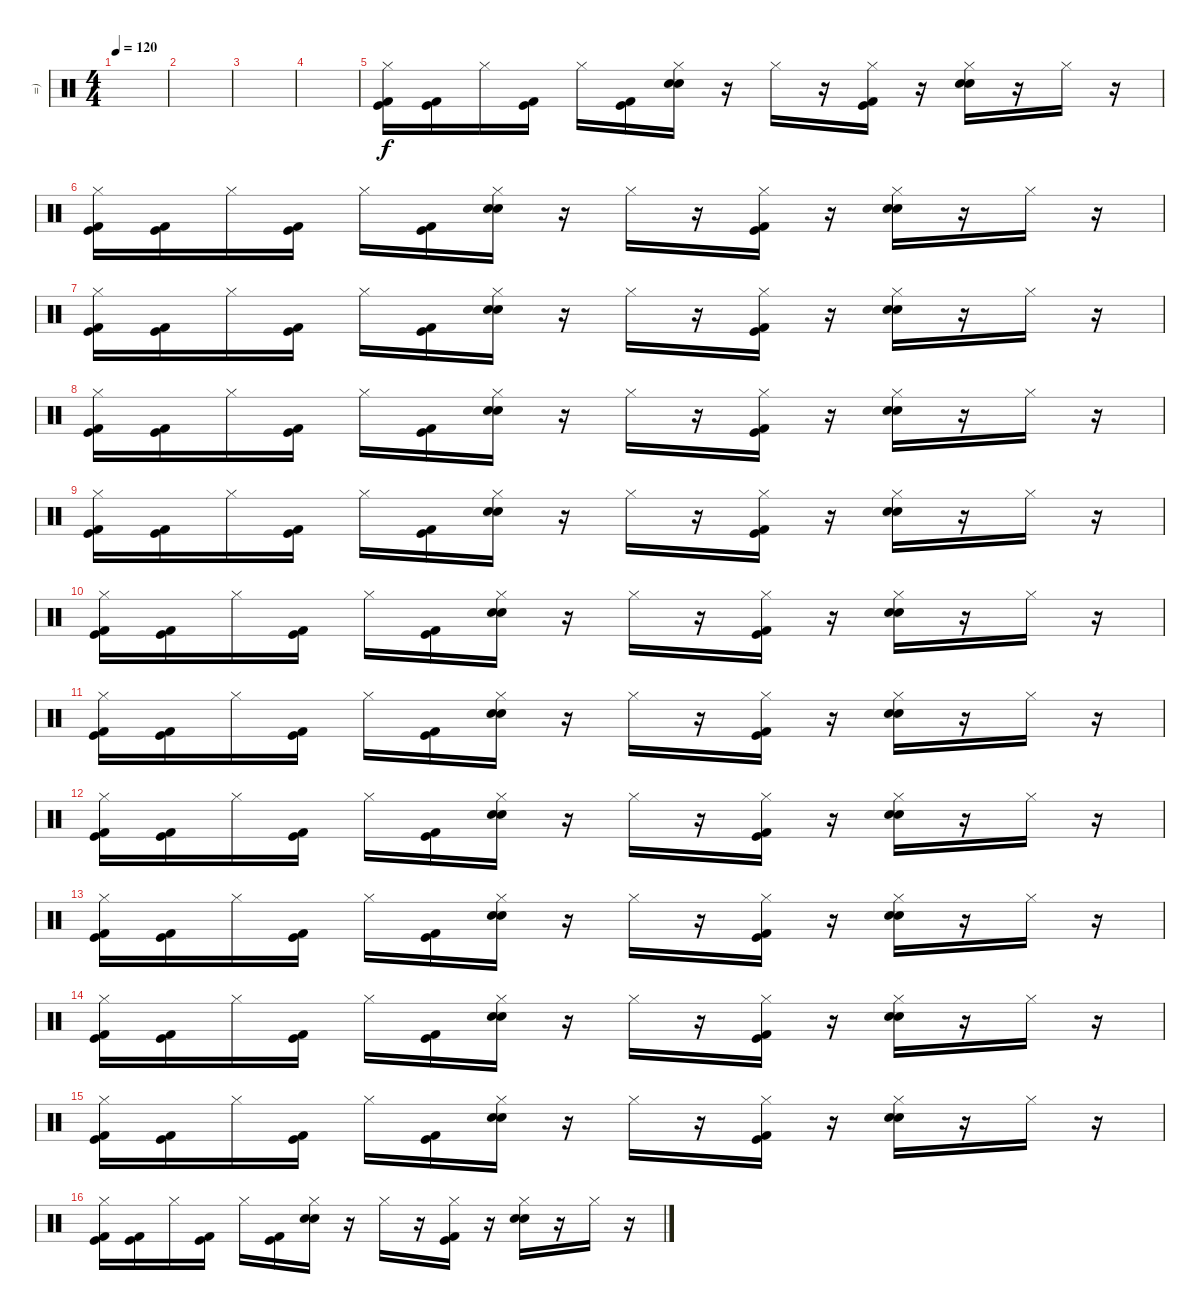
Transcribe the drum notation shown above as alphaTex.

\track ("=)" "=)") {instrument percussion}
\staff {score}
\articulation defaults
\ts (4 4)
\tempo 120
\clef neutral
\ks c
|
|
|
|
("Hi-Hat (closed)" "Kick (hit)" "Kick (hit) 2").16 ("Kick (hit)" "Kick (hit) 2").16 "Hi-Hat (closed)".16 ("Kick (hit)" "Kick (hit) 2").16 "Hi-Hat (closed)".16 ("Kick (hit)" "Kick (hit) 2").16 ("Hi-Hat (closed)" "Snare (hit) 2" "Electric Snare (hit)").16 r.16 "Hi-Hat (closed)".16 r.16 ("Hi-Hat (closed)" "Kick (hit)" "Kick (hit) 2").16 r.16 ("Hi-Hat (closed)" "Snare (hit) 2" "Electric Snare (hit)").16 r.16 "Hi-Hat (closed)".16 r.16 |
("Hi-Hat (closed)" "Kick (hit)" "Kick (hit) 2").16 ("Kick (hit)" "Kick (hit) 2").16 "Hi-Hat (closed)".16 ("Kick (hit)" "Kick (hit) 2").16 "Hi-Hat (closed)".16 ("Kick (hit)" "Kick (hit) 2").16 ("Hi-Hat (closed)" "Snare (hit) 2" "Electric Snare (hit)").16 r.16 "Hi-Hat (closed)".16 r.16 ("Hi-Hat (closed)" "Kick (hit)" "Kick (hit) 2").16 r.16 ("Hi-Hat (closed)" "Snare (hit) 2" "Electric Snare (hit)").16 r.16 "Hi-Hat (closed)".16 r.16 |
("Hi-Hat (closed)" "Kick (hit)" "Kick (hit) 2").16 ("Kick (hit)" "Kick (hit) 2").16 "Hi-Hat (closed)".16 ("Kick (hit)" "Kick (hit) 2").16 "Hi-Hat (closed)".16 ("Kick (hit)" "Kick (hit) 2").16 ("Hi-Hat (closed)" "Snare (hit) 2" "Electric Snare (hit)").16 r.16 "Hi-Hat (closed)".16 r.16 ("Hi-Hat (closed)" "Kick (hit)" "Kick (hit) 2").16 r.16 ("Hi-Hat (closed)" "Snare (hit) 2" "Electric Snare (hit)").16 r.16 "Hi-Hat (closed)".16 r.16 |
("Hi-Hat (closed)" "Kick (hit)" "Kick (hit) 2").16 ("Kick (hit)" "Kick (hit) 2").16 "Hi-Hat (closed)".16 ("Kick (hit)" "Kick (hit) 2").16 "Hi-Hat (closed)".16 ("Kick (hit)" "Kick (hit) 2").16 ("Hi-Hat (closed)" "Snare (hit) 2" "Electric Snare (hit)").16 r.16 "Hi-Hat (closed)".16 r.16 ("Hi-Hat (closed)" "Kick (hit)" "Kick (hit) 2").16 r.16 ("Hi-Hat (closed)" "Snare (hit) 2" "Electric Snare (hit)").16 r.16 "Hi-Hat (closed)".16 r.16 |
("Hi-Hat (closed)" "Kick (hit)" "Kick (hit) 2").16 ("Kick (hit)" "Kick (hit) 2").16 "Hi-Hat (closed)".16 ("Kick (hit)" "Kick (hit) 2").16 "Hi-Hat (closed)".16 ("Kick (hit)" "Kick (hit) 2").16 ("Hi-Hat (closed)" "Snare (hit) 2" "Electric Snare (hit)").16 r.16 "Hi-Hat (closed)".16 r.16 ("Hi-Hat (closed)" "Kick (hit)" "Kick (hit) 2").16 r.16 ("Hi-Hat (closed)" "Snare (hit) 2" "Electric Snare (hit)").16 r.16 "Hi-Hat (closed)".16 r.16 |
("Hi-Hat (closed)" "Kick (hit)" "Kick (hit) 2").16 ("Kick (hit)" "Kick (hit) 2").16 "Hi-Hat (closed)".16 ("Kick (hit)" "Kick (hit) 2").16 "Hi-Hat (closed)".16 ("Kick (hit)" "Kick (hit) 2").16 ("Hi-Hat (closed)" "Snare (hit) 2" "Electric Snare (hit)").16 r.16 "Hi-Hat (closed)".16 r.16 ("Hi-Hat (closed)" "Kick (hit)" "Kick (hit) 2").16 r.16 ("Hi-Hat (closed)" "Snare (hit) 2" "Electric Snare (hit)").16 r.16 "Hi-Hat (closed)".16 r.16 |
("Hi-Hat (closed)" "Kick (hit)" "Kick (hit) 2").16 ("Kick (hit)" "Kick (hit) 2").16 "Hi-Hat (closed)".16 ("Kick (hit)" "Kick (hit) 2").16 "Hi-Hat (closed)".16 ("Kick (hit)" "Kick (hit) 2").16 ("Hi-Hat (closed)" "Snare (hit) 2" "Electric Snare (hit)").16 r.16 "Hi-Hat (closed)".16 r.16 ("Hi-Hat (closed)" "Kick (hit)" "Kick (hit) 2").16 r.16 ("Hi-Hat (closed)" "Snare (hit) 2" "Electric Snare (hit)").16 r.16 "Hi-Hat (closed)".16 r.16 |
("Hi-Hat (closed)" "Kick (hit)" "Kick (hit) 2").16 ("Kick (hit)" "Kick (hit) 2").16 "Hi-Hat (closed)".16 ("Kick (hit)" "Kick (hit) 2").16 "Hi-Hat (closed)".16 ("Kick (hit)" "Kick (hit) 2").16 ("Hi-Hat (closed)" "Snare (hit) 2" "Electric Snare (hit)").16 r.16 "Hi-Hat (closed)".16 r.16 ("Hi-Hat (closed)" "Kick (hit)" "Kick (hit) 2").16 r.16 ("Hi-Hat (closed)" "Snare (hit) 2" "Electric Snare (hit)").16 r.16 "Hi-Hat (closed)".16 r.16 |
("Hi-Hat (closed)" "Kick (hit)" "Kick (hit) 2").16 ("Kick (hit)" "Kick (hit) 2").16 "Hi-Hat (closed)".16 ("Kick (hit)" "Kick (hit) 2").16 "Hi-Hat (closed)".16 ("Kick (hit)" "Kick (hit) 2").16 ("Hi-Hat (closed)" "Snare (hit) 2" "Electric Snare (hit)").16 r.16 "Hi-Hat (closed)".16 r.16 ("Hi-Hat (closed)" "Kick (hit)" "Kick (hit) 2").16 r.16 ("Hi-Hat (closed)" "Snare (hit) 2" "Electric Snare (hit)").16 r.16 "Hi-Hat (closed)".16 r.16 |
("Hi-Hat (closed)" "Kick (hit)" "Kick (hit) 2").16 ("Kick (hit)" "Kick (hit) 2").16 "Hi-Hat (closed)".16 ("Kick (hit)" "Kick (hit) 2").16 "Hi-Hat (closed)".16 ("Kick (hit)" "Kick (hit) 2").16 ("Hi-Hat (closed)" "Snare (hit) 2" "Electric Snare (hit)").16 r.16 "Hi-Hat (closed)".16 r.16 ("Hi-Hat (closed)" "Kick (hit)" "Kick (hit) 2").16 r.16 ("Hi-Hat (closed)" "Snare (hit) 2" "Electric Snare (hit)").16 r.16 "Hi-Hat (closed)".16 r.16 |
("Hi-Hat (closed)" "Kick (hit)" "Kick (hit) 2").16 ("Kick (hit)" "Kick (hit) 2").16 "Hi-Hat (closed)".16 ("Kick (hit)" "Kick (hit) 2").16 "Hi-Hat (closed)".16 ("Kick (hit)" "Kick (hit) 2").16 ("Hi-Hat (closed)" "Snare (hit) 2" "Electric Snare (hit)").16 r.16 "Hi-Hat (closed)".16 r.16 ("Hi-Hat (closed)" "Kick (hit)" "Kick (hit) 2").16 r.16 ("Hi-Hat (closed)" "Snare (hit) 2" "Electric Snare (hit)").16 r.16 "Hi-Hat (closed)".16 r.16 |
("Hi-Hat (closed)" "Kick (hit)" "Kick (hit) 2").16 ("Kick (hit)" "Kick (hit) 2").16 "Hi-Hat (closed)".16 ("Kick (hit)" "Kick (hit) 2").16 "Hi-Hat (closed)".16 ("Kick (hit)" "Kick (hit) 2").16 ("Hi-Hat (closed)" "Snare (hit) 2" "Electric Snare (hit)").16 r.16 "Hi-Hat (closed)".16 r.16 ("Hi-Hat (closed)" "Kick (hit)" "Kick (hit) 2").16 r.16 ("Hi-Hat (closed)" "Snare (hit) 2" "Electric Snare (hit)").16 r.16 "Hi-Hat (closed)".16 r.16
